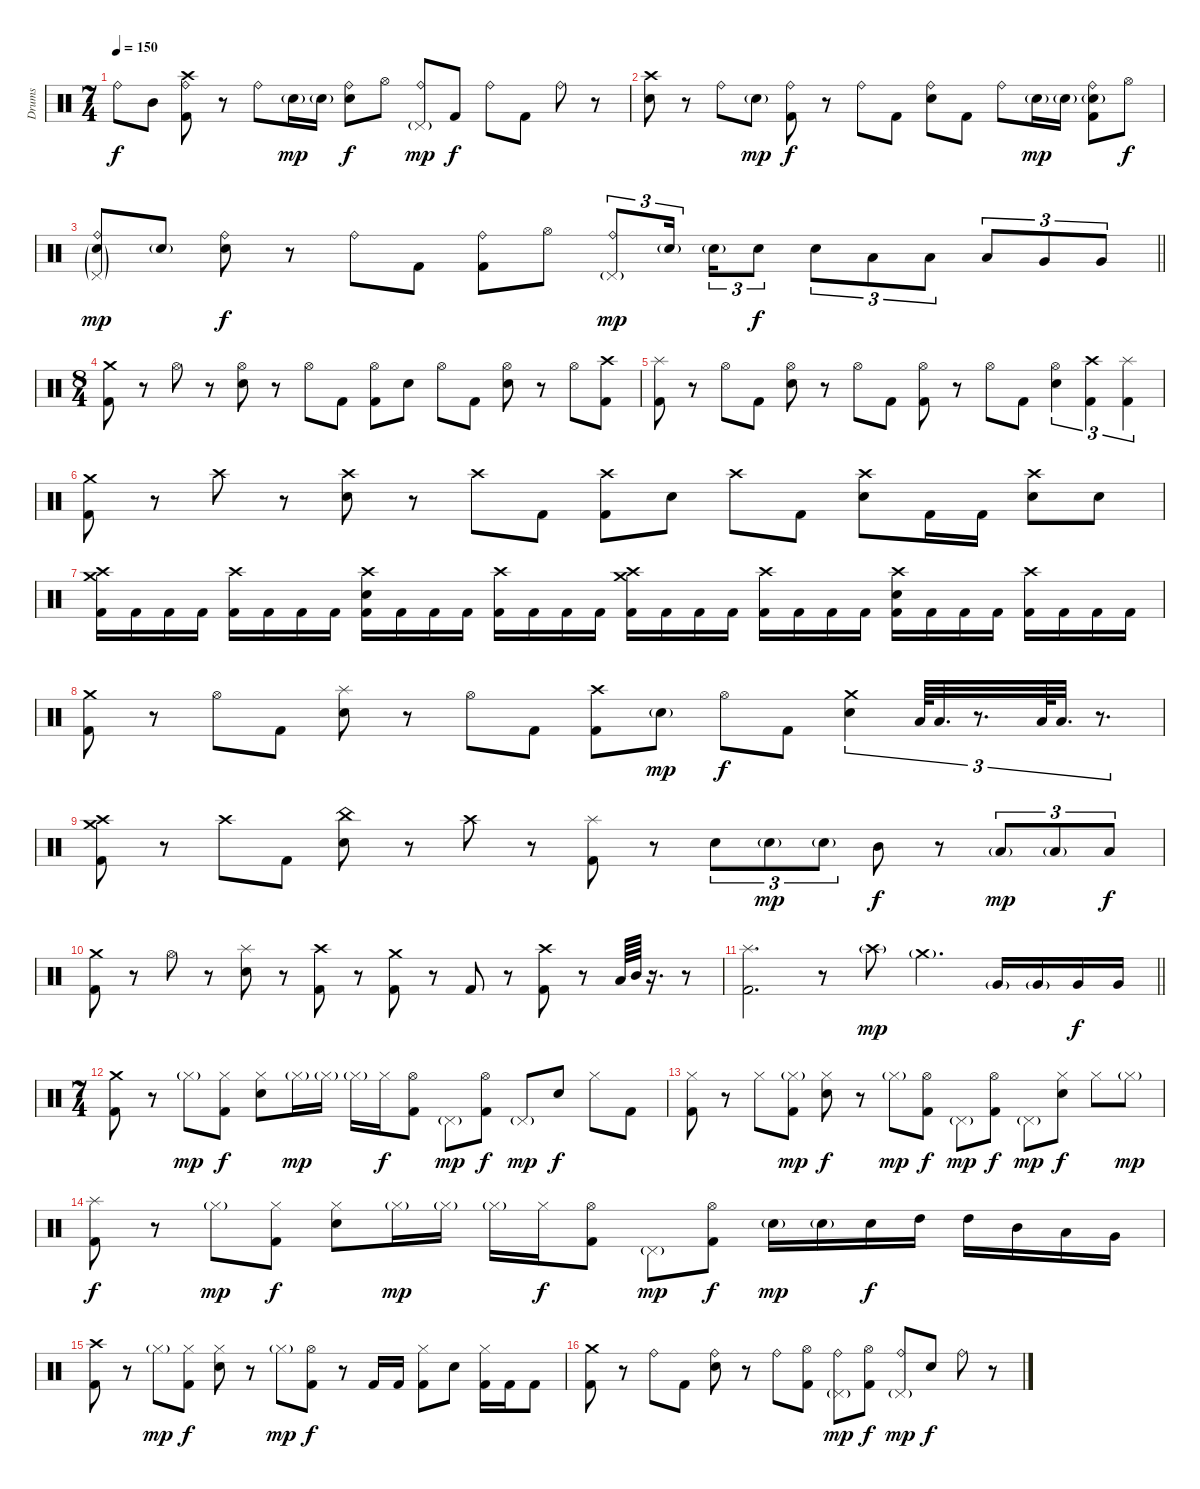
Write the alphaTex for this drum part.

\track ("Drums" "Drums") {instrument percussion}
\staff {score}
\articulation defaults
\ts (7 4)
\tempo 150
\clef neutral
\ks c "Ride (bell)".8{dy f} "Mid Tom (hit)".8
("Crash high (hit)" "Ride (bell)" "Kick (hit) 2").8 r.8 "Ride (bell)".8 "Electric Snare (hit)"{g}.16{dy mp} "Electric Snare (hit)"{g}.16 ("Ride (bell)" "Electric Snare (hit)").8{dy f} "Hi-Hat (open)".8 ("Ride (bell)" "Pedal Hi-Hat (hit)"{g}).8{dy mp} "Kick (hit) 2".8{dy f} "Ride (bell)".8 "Kick (hit) 2".8 "Ride (bell)".8 r.8 |
("Crash high (hit)" "Electric Snare (hit)").8 r.8 "Ride (bell)".8 "Electric Snare (hit)"{g}.8{dy mp} ("Ride (bell)" "Kick (hit) 2").8{dy f} r.8 "Ride (bell)".8 "Kick (hit) 2".8 ("Ride (bell)" "Electric Snare (hit)").8 "Kick (hit) 2".8 "Ride (bell)".8 "Electric Snare (hit)"{g}.16{dy mp} "Electric Snare (hit)"{g}.16 ("Ride (bell)" "Electric Snare (hit)"{g} "Kick (hit) 2").8 "Hi-Hat (open)".8{dy f} |
\barLineRight lightlight
("Ride (bell)" "Pedal Hi-Hat (hit)"{g} "Electric Snare (hit)"{g}).8{dy mp} "Electric Snare (hit)"{g}.8 ("Ride (bell)" "Electric Snare (hit)").8{dy f} r.8 "Ride (bell)".8 "Kick (hit) 2".8 ("Ride (bell)" "Kick (hit) 2").8 "Hi-Hat (open)".8 ("Ride (bell)" "Pedal Hi-Hat (hit)"{g}).8{tu (3 2) dy mp} "Electric Snare (hit)"{g}.16{tu (3 2) beam splitsecondary} "Electric Snare (hit)"{g}.16{tu (3 2)} "Electric Snare (hit)".8{tu (3 2) dy f} "Electric Snare (hit)".8{tu (3 2)} "Low Tom (hit)".8{tu (3 2)} "Low Tom (hit)".8{tu (3 2)} "Low Tom (hit)".8{tu (3 2)} "Very Low Tom (hit)".8{tu (3 2)} "Very Low Tom (hit)".8{tu (3 2)} |
\ts (8 4)
\section ("" "")
("Crash medium (hit)" "Kick (hit) 2").8 r.8 "Hi-Hat (open)".8 r.8 ("Hi-Hat (open)" "Electric Snare (hit)").8 r.8 "Hi-Hat (open)".8 "Kick (hit) 2".8 ("Hi-Hat (open)" "Kick (hit) 2").8 "Electric Snare (hit)".8 "Hi-Hat (open)".8 "Kick (hit) 2".8 ("Hi-Hat (open)" "Electric Snare (hit)").8 r.8 "Hi-Hat (open)".8 ("Crash high (hit)" "Kick (hit) 2").8 |
("Splash (hit)" "Kick (hit) 2").8 r.8 "Hi-Hat (open)".8 "Kick (hit) 2".8 ("Hi-Hat (open)" "Electric Snare (hit)").8 r.8 "Hi-Hat (open)".8 "Kick (hit) 2".8 ("Hi-Hat (open)" "Kick (hit) 2").8 r.8 "Hi-Hat (open)".8 "Kick (hit) 2".8 ("Hi-Hat (open)" "Electric Snare (hit)").4{tu (3 2)} ("Crash high (hit)" "Kick (hit) 2").4{tu (3 2)} ("Splash (hit)" "Kick (hit) 2").4{tu (3 2)} |
("Crash medium (hit)" "Kick (hit) 2").8 r.8 "Crash high (hit)".8 r.8 ("Crash high (hit)" "Electric Snare (hit)").8 r.8 "Crash high (hit)".8 "Kick (hit) 2".8 ("Crash high (hit)" "Kick (hit) 2").8 "Electric Snare (hit)".8 "Crash high (hit)".8 "Kick (hit) 2".8 ("Crash high (hit)" "Electric Snare (hit)").8 "Kick (hit) 2".16 "Kick (hit) 2".16 ("Crash high (hit)" "Electric Snare (hit)").8 "Electric Snare (hit)".8 |
("Crash medium (hit)" "Crash high (hit)" "Kick (hit) 2").16 "Kick (hit) 2".16 "Kick (hit) 2".16 "Kick (hit) 2".16 ("Crash high (hit)" "Kick (hit) 2").16 "Kick (hit) 2".16 "Kick (hit) 2".16 "Kick (hit) 2".16 ("Crash high (hit)" "Electric Snare (hit)" "Kick (hit) 2").16 "Kick (hit) 2".16 "Kick (hit) 2".16 "Kick (hit) 2".16 ("Crash high (hit)" "Kick (hit) 2").16 "Kick (hit) 2".16 "Kick (hit) 2".16 "Kick (hit) 2".16 ("Crash medium (hit)" "Crash high (hit)" "Kick (hit) 2").16 "Kick (hit) 2".16 "Kick (hit) 2".16 "Kick (hit) 2".16 ("Crash high (hit)" "Kick (hit) 2").16 "Kick (hit) 2".16 "Kick (hit) 2".16 "Kick (hit) 2".16 ("Crash high (hit)" "Electric Snare (hit)" "Kick (hit) 2").16 "Kick (hit) 2".16 "Kick (hit) 2".16 "Kick (hit) 2".16 ("Crash high (hit)" "Kick (hit) 2").16 "Kick (hit) 2".16 "Kick (hit) 2".16 "Kick (hit) 2".16 |
("Crash medium (hit)" "Kick (hit) 2").8 r.8 "Hi-Hat (open)".8 "Kick (hit) 2".8 ("Splash (hit)" "Electric Snare (hit)").8 r.8 "Hi-Hat (open)".8 "Kick (hit) 2".8 ("Crash high (hit)" "Kick (hit) 2").8 "Electric Snare (hit)"{g}.8{dy mp} "Hi-Hat (open)".8{dy f} "Kick (hit) 2".8 ("Crash medium (hit)" "Electric Snare (hit)").4{tu (3 2)} "Low Tom (hit)".64{tu (3 2)} "Low Tom (hit)".32{d tu (3 2)} r.8{d tu (3 2)} "Low Tom (hit)".64{tu (3 2)} "Low Tom (hit)".32{d tu (3 2)} r.8{d tu (3 2)} |
("Crash medium (hit)" "Crash high (hit)" "Kick (hit) 2").8 r.8 "Crash high (hit)".8 "Kick (hit) 2".8 ("China (hit)" "Electric Snare (hit)").8 r.8 "Crash high (hit)".8 r.8 ("Splash (hit)" "Kick (hit) 2").8 r.8 "Electric Snare (hit)".8{tu (3 2)} "Electric Snare (hit)"{g}.8{tu (3 2) dy mp} "Electric Snare (hit)"{g}.8{tu (3 2)} "Mid Tom (hit)".8{dy f} r.8 "Low Tom (hit)"{g}.8{tu (3 2) dy mp} "Low Tom (hit)"{g}.8{tu (3 2)} "Low Tom (hit)".8{tu (3 2) dy f} |
("Crash medium (hit)" "Kick (hit) 2").8 r.8 "Hi-Hat (open)".8 r.8 ("Splash (hit)" "Electric Snare (hit)").8 r.8 ("Crash high (hit)" "Kick (hit) 2").8 r.8 ("Crash medium (hit)" "Kick (hit) 2").8 r.8 "Kick (hit) 2".8 r.8 ("Crash high (hit)" "Kick (hit) 2").8 r.8 "Low Tom (hit)".64 "Mid Tom (hit)".64 r.16{d} r.8 |
\barLineRight lightlight
("Splash (hit)" "Kick (hit) 2").2{d} r.8 "Crash high (hit)"{g}.8{dy mp} "Crash medium (hit)"{g}.2{d} "Very Low Tom (hit)"{g}.16 "Very Low Tom (hit)"{g}.16 "Very Low Tom (hit)".16{dy f} "Very Low Tom (hit)".16 |
\ts (7 4)
\section ("" "")
("Crash medium (hit)" "Kick (hit) 2").8 r.8 "Hi-Hat (closed)"{g}.8{dy mp} ("Hi-Hat (closed)" "Kick (hit) 2").8{dy f} ("Hi-Hat (closed)" "Electric Snare (hit)").8 "Hi-Hat (closed)"{g}.16{dy mp} "Hi-Hat (closed)"{g}.16 "Hi-Hat (closed)"{g}.16 "Hi-Hat (closed)".16{dy f} ("Hi-Hat (open)" "Kick (hit) 2").8 "Pedal Hi-Hat (hit)"{g}.8{dy mp} ("Hi-Hat (open)" "Kick (hit) 2").8{dy f} "Pedal Hi-Hat (hit)"{g}.8{dy mp} "Electric Snare (hit)".8{dy f} "Hi-Hat (closed)".8 "Kick (hit) 2".8 |
("Hi-Hat (closed)" "Kick (hit) 2").8 r.8 "Hi-Hat (closed)".8 ("Hi-Hat (closed)"{g} "Kick (hit) 2").8{dy mp} ("Hi-Hat (closed)" "Electric Snare (hit)").8{dy f} r.8 "Hi-Hat (closed)"{g}.8{dy mp} ("Hi-Hat (open)" "Kick (hit) 2").8{dy f} "Pedal Hi-Hat (hit)"{g}.8{dy mp} ("Hi-Hat (open)" "Kick (hit) 2").8{dy f} "Pedal Hi-Hat (hit)"{g}.8{dy mp} ("Hi-Hat (closed)" "Electric Snare (hit)").8{dy f} "Hi-Hat (closed)".8 "Hi-Hat (closed)"{g}.8{dy mp} |
("Splash (hit)" "Kick (hit) 2").8{dy f} r.8 "Hi-Hat (closed)"{g}.8{dy mp} ("Hi-Hat (closed)" "Kick (hit) 2").8{dy f} ("Hi-Hat (closed)" "Electric Snare (hit)").8 "Hi-Hat (closed)"{g}.16{dy mp} "Hi-Hat (closed)"{g}.16 "Hi-Hat (closed)"{g}.16 "Hi-Hat (closed)".16{dy f} ("Hi-Hat (open)" "Kick (hit) 2").8 "Pedal Hi-Hat (hit)"{g}.8{dy mp} ("Hi-Hat (open)" "Kick (hit) 2").8{dy f} "Electric Snare (hit)"{g}.16{dy mp} "Electric Snare (hit)"{g}.16 "Electric Snare (hit)".16{dy f} "High Tom (hit)".16 "High Tom (hit)".16 "Mid Tom (hit)".16 "Low Tom (hit)".16 "Very Low Tom (hit)".16 |
("Crash high (hit)" "Kick (hit) 2").8 r.8 "Hi-Hat (closed)"{g}.8{dy mp} ("Hi-Hat (closed)" "Kick (hit) 2").8{dy f} ("Hi-Hat (closed)" "Electric Snare (hit)").8 r.8 "Hi-Hat (closed)"{g}.8{dy mp} ("Hi-Hat (open)" "Kick (hit) 2").8{dy f} r.8 "Kick (hit) 2".16 "Kick (hit) 2".16 ("Hi-Hat (closed)" "Kick (hit) 2").8 "Electric Snare (hit)".8 ("Hi-Hat (closed)" "Kick (hit) 2").16 "Kick (hit) 2".16 "Kick (hit) 2".8 |
("Crash medium (hit)" "Kick (hit) 2").8 r.8 "Ride (bell)".8 "Kick (hit) 2".8 ("Ride (bell)" "Electric Snare (hit)").8 r.8 "Ride (bell)".8 ("Hi-Hat (open)" "Kick (hit) 2").8 ("Ride (bell)" "Pedal Hi-Hat (hit)"{g}).8{dy mp} ("Hi-Hat (open)" "Kick (hit) 2").8{dy f} ("Ride (bell)" "Pedal Hi-Hat (hit)"{g}).8{dy mp} "Electric Snare (hit)".8{dy f} "Ride (bell)".8 r.8
